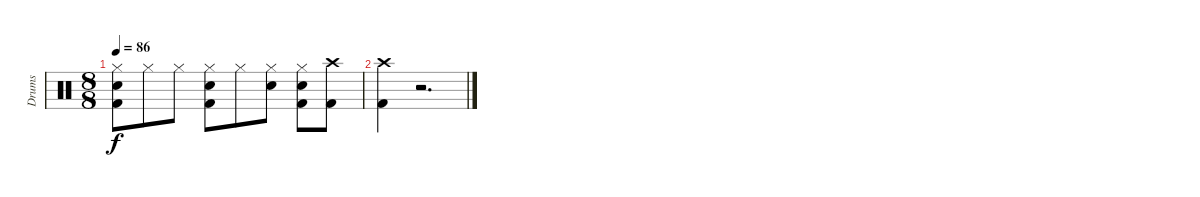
\track ("Drums" "Drums") {instrument percussion}
\staff {score}
\articulation defaults
\ts (8 8)
\tempo 86
\clef neutral
\ks c
("Hi-Hat (closed)" "Snare (hit) 2" "Kick (hit) 2").8{dy f} "Hi-Hat (closed)".8 "Hi-Hat (closed)".8 ("Hi-Hat (closed)" "Snare (hit) 2" "Kick (hit) 2").8 "Hi-Hat (closed)".8 ("Hi-Hat (closed)" "Snare (hit) 2").8 ("Hi-Hat (closed)" "Snare (hit) 2" "Kick (hit) 2").8 ("Crash high (hit)" "Kick (hit) 2").8 |
("Crash high (hit)" "Kick (hit) 2").4 r.2{d}
